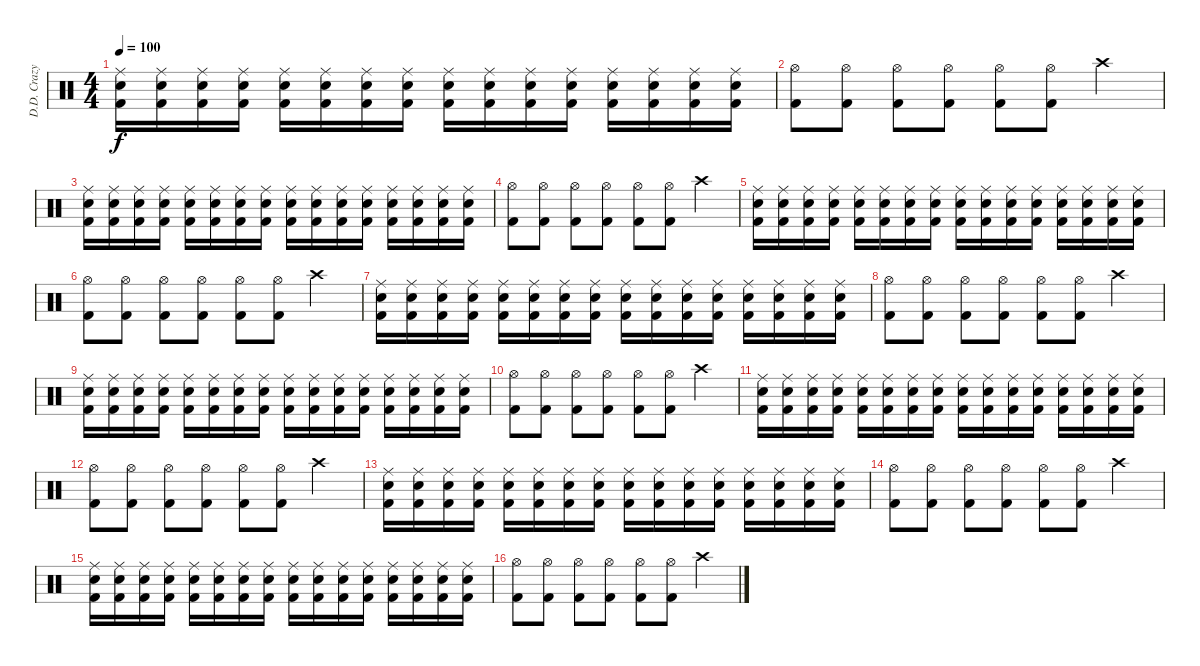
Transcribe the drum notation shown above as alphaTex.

\track ("D.D. Crazy " "D.D. Crazy") {instrument percussion}
\staff {score}
\articulation defaults
\ts (4 4)
\tempo 100
\clef neutral
\ks c
("Ride (middle)" "Snare (hit) 2" "Kick (hit) 2").16{dy f} ("Ride (middle)" "Snare (hit) 2" "Kick (hit) 2").16 ("Ride (middle)" "Snare (hit) 2" "Kick (hit) 2").16 ("Ride (middle)" "Snare (hit) 2" "Kick (hit) 2").16 ("Ride (middle)" "Snare (hit) 2" "Kick (hit) 2").16 ("Ride (middle)" "Snare (hit) 2" "Kick (hit) 2").16 ("Ride (middle)" "Snare (hit) 2" "Kick (hit) 2").16 ("Ride (middle)" "Snare (hit) 2" "Kick (hit) 2").16 ("Ride (middle)" "Snare (hit) 2" "Kick (hit) 2").16 ("Ride (middle)" "Snare (hit) 2" "Kick (hit) 2").16 ("Ride (middle)" "Snare (hit) 2" "Kick (hit) 2").16 ("Ride (middle)" "Snare (hit) 2" "Kick (hit) 2").16 ("Ride (middle)" "Snare (hit) 2" "Kick (hit) 2").16 ("Ride (middle)" "Snare (hit) 2" "Kick (hit) 2").16 ("Ride (middle)" "Snare (hit) 2" "Kick (hit) 2").16 ("Ride (middle)" "Snare (hit) 2" "Kick (hit) 2").16 |
("Hi-Hat (open)" "Kick (hit) 2").8 ("Hi-Hat (open)" "Kick (hit) 2").8 ("Hi-Hat (open)" "Kick (hit) 2").8 ("Hi-Hat (open)" "Kick (hit) 2").8 ("Hi-Hat (open)" "Kick (hit) 2").8 ("Hi-Hat (open)" "Kick (hit) 2").8 "Crash high (hit)".4 |
("Ride (middle)" "Snare (hit) 2" "Kick (hit) 2").16 ("Ride (middle)" "Snare (hit) 2" "Kick (hit) 2").16 ("Ride (middle)" "Snare (hit) 2" "Kick (hit) 2").16 ("Ride (middle)" "Snare (hit) 2" "Kick (hit) 2").16 ("Ride (middle)" "Snare (hit) 2" "Kick (hit) 2").16 ("Ride (middle)" "Snare (hit) 2" "Kick (hit) 2").16 ("Ride (middle)" "Snare (hit) 2" "Kick (hit) 2").16 ("Ride (middle)" "Snare (hit) 2" "Kick (hit) 2").16 ("Ride (middle)" "Snare (hit) 2" "Kick (hit) 2").16 ("Ride (middle)" "Snare (hit) 2" "Kick (hit) 2").16 ("Ride (middle)" "Snare (hit) 2" "Kick (hit) 2").16 ("Ride (middle)" "Snare (hit) 2" "Kick (hit) 2").16 ("Ride (middle)" "Snare (hit) 2" "Kick (hit) 2").16 ("Ride (middle)" "Snare (hit) 2" "Kick (hit) 2").16 ("Ride (middle)" "Snare (hit) 2" "Kick (hit) 2").16 ("Ride (middle)" "Snare (hit) 2" "Kick (hit) 2").16 |
("Hi-Hat (open)" "Kick (hit) 2").8 ("Hi-Hat (open)" "Kick (hit) 2").8 ("Hi-Hat (open)" "Kick (hit) 2").8 ("Hi-Hat (open)" "Kick (hit) 2").8 ("Hi-Hat (open)" "Kick (hit) 2").8 ("Hi-Hat (open)" "Kick (hit) 2").8 "Crash high (hit)".4 |
("Ride (middle)" "Snare (hit) 2" "Kick (hit) 2").16 ("Ride (middle)" "Snare (hit) 2" "Kick (hit) 2").16 ("Ride (middle)" "Snare (hit) 2" "Kick (hit) 2").16 ("Ride (middle)" "Snare (hit) 2" "Kick (hit) 2").16 ("Ride (middle)" "Snare (hit) 2" "Kick (hit) 2").16 ("Ride (middle)" "Snare (hit) 2" "Kick (hit) 2").16 ("Ride (middle)" "Snare (hit) 2" "Kick (hit) 2").16 ("Ride (middle)" "Snare (hit) 2" "Kick (hit) 2").16 ("Ride (middle)" "Snare (hit) 2" "Kick (hit) 2").16 ("Ride (middle)" "Snare (hit) 2" "Kick (hit) 2").16 ("Ride (middle)" "Snare (hit) 2" "Kick (hit) 2").16 ("Ride (middle)" "Snare (hit) 2" "Kick (hit) 2").16 ("Ride (middle)" "Snare (hit) 2" "Kick (hit) 2").16 ("Ride (middle)" "Snare (hit) 2" "Kick (hit) 2").16 ("Ride (middle)" "Snare (hit) 2" "Kick (hit) 2").16 ("Ride (middle)" "Snare (hit) 2" "Kick (hit) 2").16 |
("Hi-Hat (open)" "Kick (hit) 2").8 ("Hi-Hat (open)" "Kick (hit) 2").8 ("Hi-Hat (open)" "Kick (hit) 2").8 ("Hi-Hat (open)" "Kick (hit) 2").8 ("Hi-Hat (open)" "Kick (hit) 2").8 ("Hi-Hat (open)" "Kick (hit) 2").8 "Crash high (hit)".4 |
("Ride (middle)" "Snare (hit) 2" "Kick (hit) 2").16 ("Ride (middle)" "Snare (hit) 2" "Kick (hit) 2").16 ("Ride (middle)" "Snare (hit) 2" "Kick (hit) 2").16 ("Ride (middle)" "Snare (hit) 2" "Kick (hit) 2").16 ("Ride (middle)" "Snare (hit) 2" "Kick (hit) 2").16 ("Ride (middle)" "Snare (hit) 2" "Kick (hit) 2").16 ("Ride (middle)" "Snare (hit) 2" "Kick (hit) 2").16 ("Ride (middle)" "Snare (hit) 2" "Kick (hit) 2").16 ("Ride (middle)" "Snare (hit) 2" "Kick (hit) 2").16 ("Ride (middle)" "Snare (hit) 2" "Kick (hit) 2").16 ("Ride (middle)" "Snare (hit) 2" "Kick (hit) 2").16 ("Ride (middle)" "Snare (hit) 2" "Kick (hit) 2").16 ("Ride (middle)" "Snare (hit) 2" "Kick (hit) 2").16 ("Ride (middle)" "Snare (hit) 2" "Kick (hit) 2").16 ("Ride (middle)" "Snare (hit) 2" "Kick (hit) 2").16 ("Ride (middle)" "Snare (hit) 2" "Kick (hit) 2").16 |
("Hi-Hat (open)" "Kick (hit) 2").8 ("Hi-Hat (open)" "Kick (hit) 2").8 ("Hi-Hat (open)" "Kick (hit) 2").8 ("Hi-Hat (open)" "Kick (hit) 2").8 ("Hi-Hat (open)" "Kick (hit) 2").8 ("Hi-Hat (open)" "Kick (hit) 2").8 "Crash high (hit)".4 |
("Ride (middle)" "Snare (hit) 2" "Kick (hit) 2").16 ("Ride (middle)" "Snare (hit) 2" "Kick (hit) 2").16 ("Ride (middle)" "Snare (hit) 2" "Kick (hit) 2").16 ("Ride (middle)" "Snare (hit) 2" "Kick (hit) 2").16 ("Ride (middle)" "Snare (hit) 2" "Kick (hit) 2").16 ("Ride (middle)" "Snare (hit) 2" "Kick (hit) 2").16 ("Ride (middle)" "Snare (hit) 2" "Kick (hit) 2").16 ("Ride (middle)" "Snare (hit) 2" "Kick (hit) 2").16 ("Ride (middle)" "Snare (hit) 2" "Kick (hit) 2").16 ("Ride (middle)" "Snare (hit) 2" "Kick (hit) 2").16 ("Ride (middle)" "Snare (hit) 2" "Kick (hit) 2").16 ("Ride (middle)" "Snare (hit) 2" "Kick (hit) 2").16 ("Ride (middle)" "Snare (hit) 2" "Kick (hit) 2").16 ("Ride (middle)" "Snare (hit) 2" "Kick (hit) 2").16 ("Ride (middle)" "Snare (hit) 2" "Kick (hit) 2").16 ("Ride (middle)" "Snare (hit) 2" "Kick (hit) 2").16 |
("Hi-Hat (open)" "Kick (hit) 2").8 ("Hi-Hat (open)" "Kick (hit) 2").8 ("Hi-Hat (open)" "Kick (hit) 2").8 ("Hi-Hat (open)" "Kick (hit) 2").8 ("Hi-Hat (open)" "Kick (hit) 2").8 ("Hi-Hat (open)" "Kick (hit) 2").8 "Crash high (hit)".4 |
("Ride (middle)" "Snare (hit) 2" "Kick (hit) 2").16 ("Ride (middle)" "Snare (hit) 2" "Kick (hit) 2").16 ("Ride (middle)" "Snare (hit) 2" "Kick (hit) 2").16 ("Ride (middle)" "Snare (hit) 2" "Kick (hit) 2").16 ("Ride (middle)" "Snare (hit) 2" "Kick (hit) 2").16 ("Ride (middle)" "Snare (hit) 2" "Kick (hit) 2").16 ("Ride (middle)" "Snare (hit) 2" "Kick (hit) 2").16 ("Ride (middle)" "Snare (hit) 2" "Kick (hit) 2").16 ("Ride (middle)" "Snare (hit) 2" "Kick (hit) 2").16 ("Ride (middle)" "Snare (hit) 2" "Kick (hit) 2").16 ("Ride (middle)" "Snare (hit) 2" "Kick (hit) 2").16 ("Ride (middle)" "Snare (hit) 2" "Kick (hit) 2").16 ("Ride (middle)" "Snare (hit) 2" "Kick (hit) 2").16 ("Ride (middle)" "Snare (hit) 2" "Kick (hit) 2").16 ("Ride (middle)" "Snare (hit) 2" "Kick (hit) 2").16 ("Ride (middle)" "Snare (hit) 2" "Kick (hit) 2").16 |
("Hi-Hat (open)" "Kick (hit) 2").8 ("Hi-Hat (open)" "Kick (hit) 2").8 ("Hi-Hat (open)" "Kick (hit) 2").8 ("Hi-Hat (open)" "Kick (hit) 2").8 ("Hi-Hat (open)" "Kick (hit) 2").8 ("Hi-Hat (open)" "Kick (hit) 2").8 "Crash high (hit)".4 |
("Ride (middle)" "Snare (hit) 2" "Kick (hit) 2").16 ("Ride (middle)" "Snare (hit) 2" "Kick (hit) 2").16 ("Ride (middle)" "Snare (hit) 2" "Kick (hit) 2").16 ("Ride (middle)" "Snare (hit) 2" "Kick (hit) 2").16 ("Ride (middle)" "Snare (hit) 2" "Kick (hit) 2").16 ("Ride (middle)" "Snare (hit) 2" "Kick (hit) 2").16 ("Ride (middle)" "Snare (hit) 2" "Kick (hit) 2").16 ("Ride (middle)" "Snare (hit) 2" "Kick (hit) 2").16 ("Ride (middle)" "Snare (hit) 2" "Kick (hit) 2").16 ("Ride (middle)" "Snare (hit) 2" "Kick (hit) 2").16 ("Ride (middle)" "Snare (hit) 2" "Kick (hit) 2").16 ("Ride (middle)" "Snare (hit) 2" "Kick (hit) 2").16 ("Ride (middle)" "Snare (hit) 2" "Kick (hit) 2").16 ("Ride (middle)" "Snare (hit) 2" "Kick (hit) 2").16 ("Ride (middle)" "Snare (hit) 2" "Kick (hit) 2").16 ("Ride (middle)" "Snare (hit) 2" "Kick (hit) 2").16 |
("Hi-Hat (open)" "Kick (hit) 2").8 ("Hi-Hat (open)" "Kick (hit) 2").8 ("Hi-Hat (open)" "Kick (hit) 2").8 ("Hi-Hat (open)" "Kick (hit) 2").8 ("Hi-Hat (open)" "Kick (hit) 2").8 ("Hi-Hat (open)" "Kick (hit) 2").8 "Crash high (hit)".4 |
("Ride (middle)" "Snare (hit) 2" "Kick (hit) 2").16 ("Ride (middle)" "Snare (hit) 2" "Kick (hit) 2").16 ("Ride (middle)" "Snare (hit) 2" "Kick (hit) 2").16 ("Ride (middle)" "Snare (hit) 2" "Kick (hit) 2").16 ("Ride (middle)" "Snare (hit) 2" "Kick (hit) 2").16 ("Ride (middle)" "Snare (hit) 2" "Kick (hit) 2").16 ("Ride (middle)" "Snare (hit) 2" "Kick (hit) 2").16 ("Ride (middle)" "Snare (hit) 2" "Kick (hit) 2").16 ("Ride (middle)" "Snare (hit) 2" "Kick (hit) 2").16 ("Ride (middle)" "Snare (hit) 2" "Kick (hit) 2").16 ("Ride (middle)" "Snare (hit) 2" "Kick (hit) 2").16 ("Ride (middle)" "Snare (hit) 2" "Kick (hit) 2").16 ("Ride (middle)" "Snare (hit) 2" "Kick (hit) 2").16 ("Ride (middle)" "Snare (hit) 2" "Kick (hit) 2").16 ("Ride (middle)" "Snare (hit) 2" "Kick (hit) 2").16 ("Ride (middle)" "Snare (hit) 2" "Kick (hit) 2").16 |
("Hi-Hat (open)" "Kick (hit) 2").8 ("Hi-Hat (open)" "Kick (hit) 2").8 ("Hi-Hat (open)" "Kick (hit) 2").8 ("Hi-Hat (open)" "Kick (hit) 2").8 ("Hi-Hat (open)" "Kick (hit) 2").8 ("Hi-Hat (open)" "Kick (hit) 2").8 "Crash high (hit)".4
